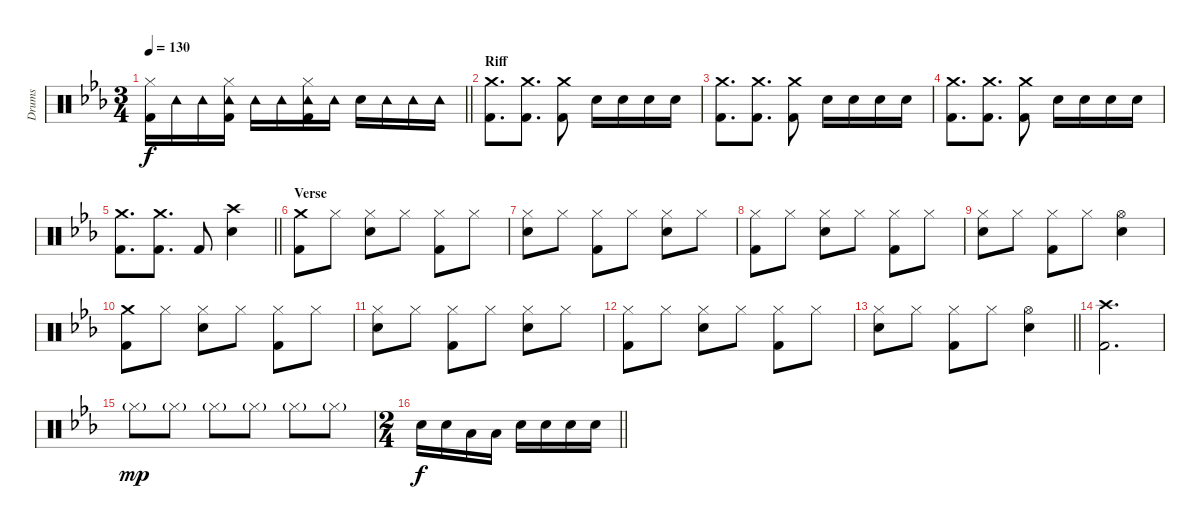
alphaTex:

\track ("Drums" "Drums") {instrument percussion}
\staff {score}
\articulation defaults
\ts (3 4)
\tempo 130
\clef neutral
\barLineRight lightlight
\ks eb
("Hi-Hat (closed)" "Kick (hit) 2").16{dy f} "Tambourine (hit)".16 "Tambourine (hit)".16 ("Hi-Hat (closed)" "Kick (hit) 2" "Tambourine (hit)").16 "Tambourine (hit)".16 "Tambourine (hit)".16 ("Hi-Hat (closed)" "Kick (hit) 2" "Tambourine (hit)").16 "Tambourine (hit)".16 "Electric Snare (hit)".16 "Tambourine (hit)".16 "Tambourine (hit)".16 "Tambourine (hit)".16 |
\section ("" "Riff")
("Crash medium (hit)" "Kick (hit) 2").8{d} ("Crash medium (hit)" "Kick (hit) 2").8{d} ("Crash medium (hit)" "Kick (hit) 2").8 "Electric Snare (hit)".16 "Electric Snare (hit)".16 "Electric Snare (hit)".16 "Electric Snare (hit)".16 |
("Crash medium (hit)" "Kick (hit) 2").8{d} ("Crash medium (hit)" "Kick (hit) 2").8{d} ("Crash medium (hit)" "Kick (hit) 2").8 "Electric Snare (hit)".16 "Electric Snare (hit)".16 "Electric Snare (hit)".16 "Electric Snare (hit)".16 |
("Crash medium (hit)" "Kick (hit) 2").8{d} ("Crash medium (hit)" "Kick (hit) 2").8{d} ("Crash medium (hit)" "Kick (hit) 2").8 "Electric Snare (hit)".16 "Electric Snare (hit)".16 "Electric Snare (hit)".16 "Electric Snare (hit)".16 |
\barLineRight lightlight
("Crash medium (hit)" "Kick (hit) 2").8{d} ("Crash medium (hit)" "Kick (hit) 2").8{d} "Kick (hit) 2".8 ("Crash high (hit)" "Electric Snare (hit)").4 |
\section ("" "Verse")
("Crash medium (hit)" "Kick (hit) 2").8 "Hi-Hat (closed)".8 ("Hi-Hat (closed)" "Electric Snare (hit)").8 "Hi-Hat (closed)".8 ("Hi-Hat (closed)" "Kick (hit) 2").8 "Hi-Hat (closed)".8 |
("Hi-Hat (closed)" "Electric Snare (hit)").8 "Hi-Hat (closed)".8 ("Hi-Hat (closed)" "Kick (hit) 2").8 "Hi-Hat (closed)".8 ("Hi-Hat (closed)" "Electric Snare (hit)").8 "Hi-Hat (closed)".8 |
("Hi-Hat (closed)" "Kick (hit) 2").8 "Hi-Hat (closed)".8 ("Hi-Hat (closed)" "Electric Snare (hit)").8 "Hi-Hat (closed)".8 ("Hi-Hat (closed)" "Kick (hit) 2").8 "Hi-Hat (closed)".8 |
("Hi-Hat (closed)" "Electric Snare (hit)").8 "Hi-Hat (closed)".8 ("Hi-Hat (closed)" "Kick (hit) 2").8 "Hi-Hat (closed)".8 ("Hi-Hat (open)" "Electric Snare (hit)").4 |
("Crash medium (hit)" "Kick (hit) 2").8 "Hi-Hat (closed)".8 ("Hi-Hat (closed)" "Electric Snare (hit)").8 "Hi-Hat (closed)".8 ("Hi-Hat (closed)" "Kick (hit) 2").8 "Hi-Hat (closed)".8 |
("Hi-Hat (closed)" "Electric Snare (hit)").8 "Hi-Hat (closed)".8 ("Hi-Hat (closed)" "Kick (hit) 2").8 "Hi-Hat (closed)".8 ("Hi-Hat (closed)" "Electric Snare (hit)").8 "Hi-Hat (closed)".8 |
("Hi-Hat (closed)" "Kick (hit) 2").8 "Hi-Hat (closed)".8 ("Hi-Hat (closed)" "Electric Snare (hit)").8 "Hi-Hat (closed)".8 ("Hi-Hat (closed)" "Kick (hit) 2").8 "Hi-Hat (closed)".8 |
\barLineRight lightlight
("Hi-Hat (closed)" "Electric Snare (hit)").8 "Hi-Hat (closed)".8 ("Hi-Hat (closed)" "Kick (hit) 2").8 "Hi-Hat (closed)".8 ("Hi-Hat (open)" "Electric Snare (hit)").4 |
("Crash high (hit)" "Kick (hit) 2").2{d} |
"Hi-Hat (closed)"{g}.8{dy mp} "Hi-Hat (closed)"{g}.8 "Hi-Hat (closed)"{g}.8 "Hi-Hat (closed)"{g}.8 "Hi-Hat (closed)"{g}.8 "Hi-Hat (closed)"{g}.8 |
\ts (2 4)
\barLineRight lightlight "Electric Snare (hit)".16{dy f} "Electric Snare (hit)".16 "Low Tom (hit)".16 "Low Tom (hit)".16 "Electric Snare (hit)".16 "Electric Snare (hit)".16 "Electric Snare (hit)".16 "Electric Snare (hit)".16
